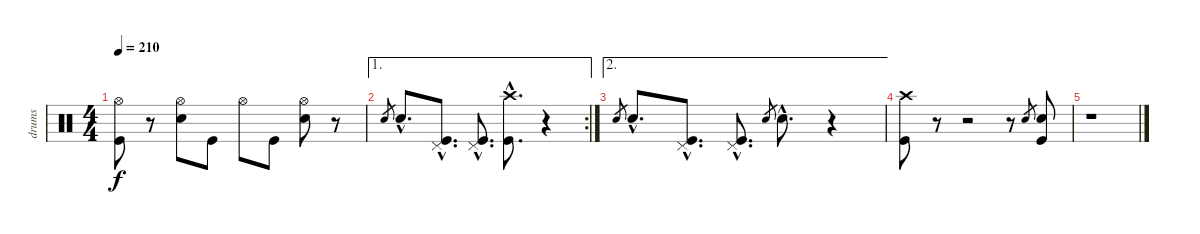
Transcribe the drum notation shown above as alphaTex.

\track ("drums" "drums") {instrument percussion}
\staff {score}
\articulation defaults
\ts (4 4)
\tempo 210
\clef neutral
\ks c
("Hi-Hat (open)" "Kick (hit)").8{dy f} r.8 ("Hi-Hat (open)" "Electric Snare (hit)").8 "Kick (hit)".8 "Hi-Hat (open)".8 "Kick (hit)".8 ("Hi-Hat (open)" "Electric Snare (hit)").8 r.8 |
\ae 1
\rc 2 "Electric Snare (hit)".8{gr} "Electric Snare (hit)"{hac}.8{d}
("Pedal Hi-Hat (hit)"{hac} "Kick (hit)"{hac}).8{d} ("Pedal Hi-Hat (hit)"{hac} "Kick (hit)"{hac}).8{d} ("Crash high (hit)"{hac} "Kick (hit)"{hac}).8{d} r.4 |
\ae 2 "Electric Snare (hit)".8{gr} "Electric Snare (hit)"{hac}.8{d}
("Pedal Hi-Hat (hit)"{hac} "Kick (hit)"{hac}).8{d} ("Pedal Hi-Hat (hit)"{hac} "Kick (hit)"{hac}).8{d} "Metronome (bell)".8{gr} "Electric Snare (hit)"{hac}.8{d} r.4 |
("Crash high (hit)" "Kick (hit)").8 r.8 r.2 r.8 "Electric Snare (hit)".8{gr} ("Electric Snare (hit)" "Kick (hit)").8 |
r.1
